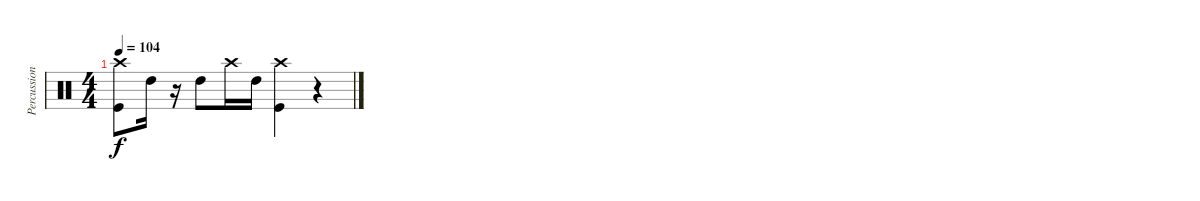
\track ("Percussion" "Percussion") {instrument percussion}
\staff {score}
\articulation defaults
\ts (4 4)
\tempo 104
\clef neutral
\ks c
("Crash high (hit)" "Kick (hit)").8{dy f} "High Tom (hit)".16 r.16 "High Tom (hit)".8 "Crash high (hit)".16 "High Tom (hit)".16 ("Crash high (hit)" "Kick (hit)").4 r.4
